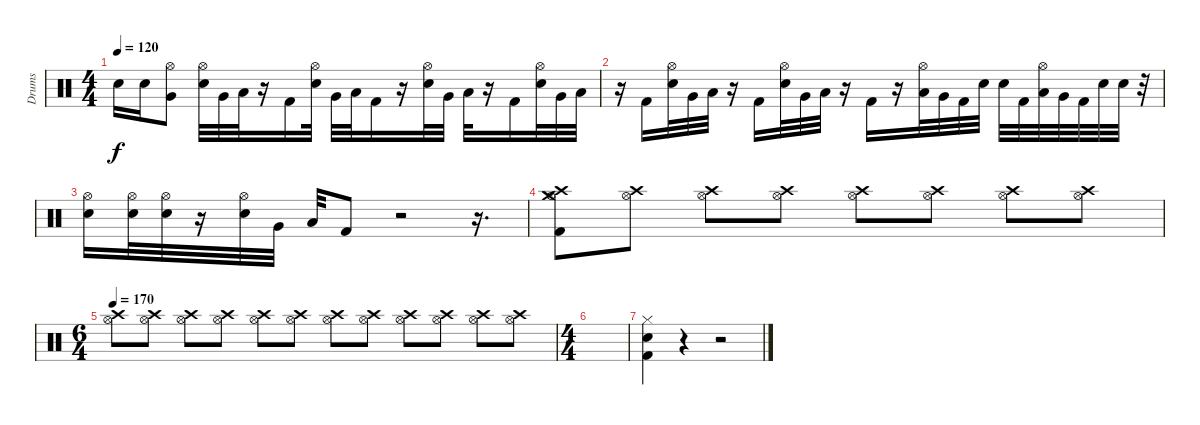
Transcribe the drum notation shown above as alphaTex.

\track ("Drums" "Drums") {instrument percussion}
\staff {score}
\articulation defaults
\ts (4 4)
\tempo 120
\clef neutral
\ks c "Snare (hit) 2".16{dy f} "Snare (hit) 2".16
("Very Low Tom (hit)" "Hi-Hat (open)").8 ("Snare (hit) 2" "Hi-Hat (open)").32 "Very Low Tom (hit)".32 "Low Tom (hit)".32 r.16 "Kick (hit) 2".16 ("Snare (hit) 2" "Hi-Hat (open)").32 "Very Low Tom (hit)".32 "Low Tom (hit)".32 "Kick (hit) 2".16 r.16 ("Snare (hit) 2" "Hi-Hat (open)").32 "Very Low Tom (hit)".32 "Low Tom (hit)".32 r.16 "Kick (hit) 2".16 ("Snare (hit) 2" "Hi-Hat (open)").32 "Very Low Tom (hit)".32 "Low Tom (hit)".32 |
r.16 "Kick (hit) 2".16 ("Snare (hit) 2" "Hi-Hat (open)").32 "Very Low Tom (hit)".32 "Low Tom (hit)".32 r.16 "Kick (hit) 2".16 ("Snare (hit) 2" "Hi-Hat (open)").32 "Very Low Tom (hit)".32 "Low Tom (hit)".32 r.16 "Kick (hit) 2".16 r.16 ("Hi-Hat (open)" "Low Tom (hit)").32 "Very Low Tom (hit)".32 "Kick (hit) 2".32 "Snare (hit) 2".32 "Snare (hit) 2".32 "Kick (hit) 2".32 ("Hi-Hat (open)" "Low Tom (hit)").32 "Very Low Tom (hit)".32 "Kick (hit) 2".32 "Snare (hit) 2".32 "Snare (hit) 2".32 r.32 |
("Snare (hit) 2" "Hi-Hat (open)").16 ("Snare (hit) 2" "Hi-Hat (open)").32 ("Snare (hit) 2" "Hi-Hat (open)").32 r.16 ("Snare (hit) 2" "Hi-Hat (open)").32 "Very Low Tom (hit)".32 "Low Tom (hit)".32 "Kick (hit) 2".8 r.2 r.16{d} |
("Crash high (hit)" "Hi-Hat (open)" "Crash medium (hit)" "Kick (hit) 2").8 ("Crash high (hit)" "Hi-Hat (open)").8 ("Crash high (hit)" "Hi-Hat (open)").8 ("Crash high (hit)" "Hi-Hat (open)").8 ("Crash high (hit)" "Hi-Hat (open)").8 ("Crash high (hit)" "Hi-Hat (open)").8 ("Crash high (hit)" "Hi-Hat (open)").8 ("Crash high (hit)" "Hi-Hat (open)").8 |
\ts (6 4)
\tempo 170
("Crash high (hit)" "Hi-Hat (open)").8 ("Crash high (hit)" "Hi-Hat (open)").8 ("Crash high (hit)" "Hi-Hat (open)").8 ("Crash high (hit)" "Hi-Hat (open)").8 ("Crash high (hit)" "Hi-Hat (open)").8 ("Crash high (hit)" "Hi-Hat (open)").8 ("Crash high (hit)" "Hi-Hat (open)").8 ("Crash high (hit)" "Hi-Hat (open)").8 ("Crash high (hit)" "Hi-Hat (open)").8 ("Crash high (hit)" "Hi-Hat (open)").8 ("Crash high (hit)" "Hi-Hat (open)").8 ("Crash high (hit)" "Hi-Hat (open)").8 |
\ts (4 4)
|
("Hi-Hat (closed)" "Snare (hit) 2" "Kick (hit) 2").4 r.4 r.2
